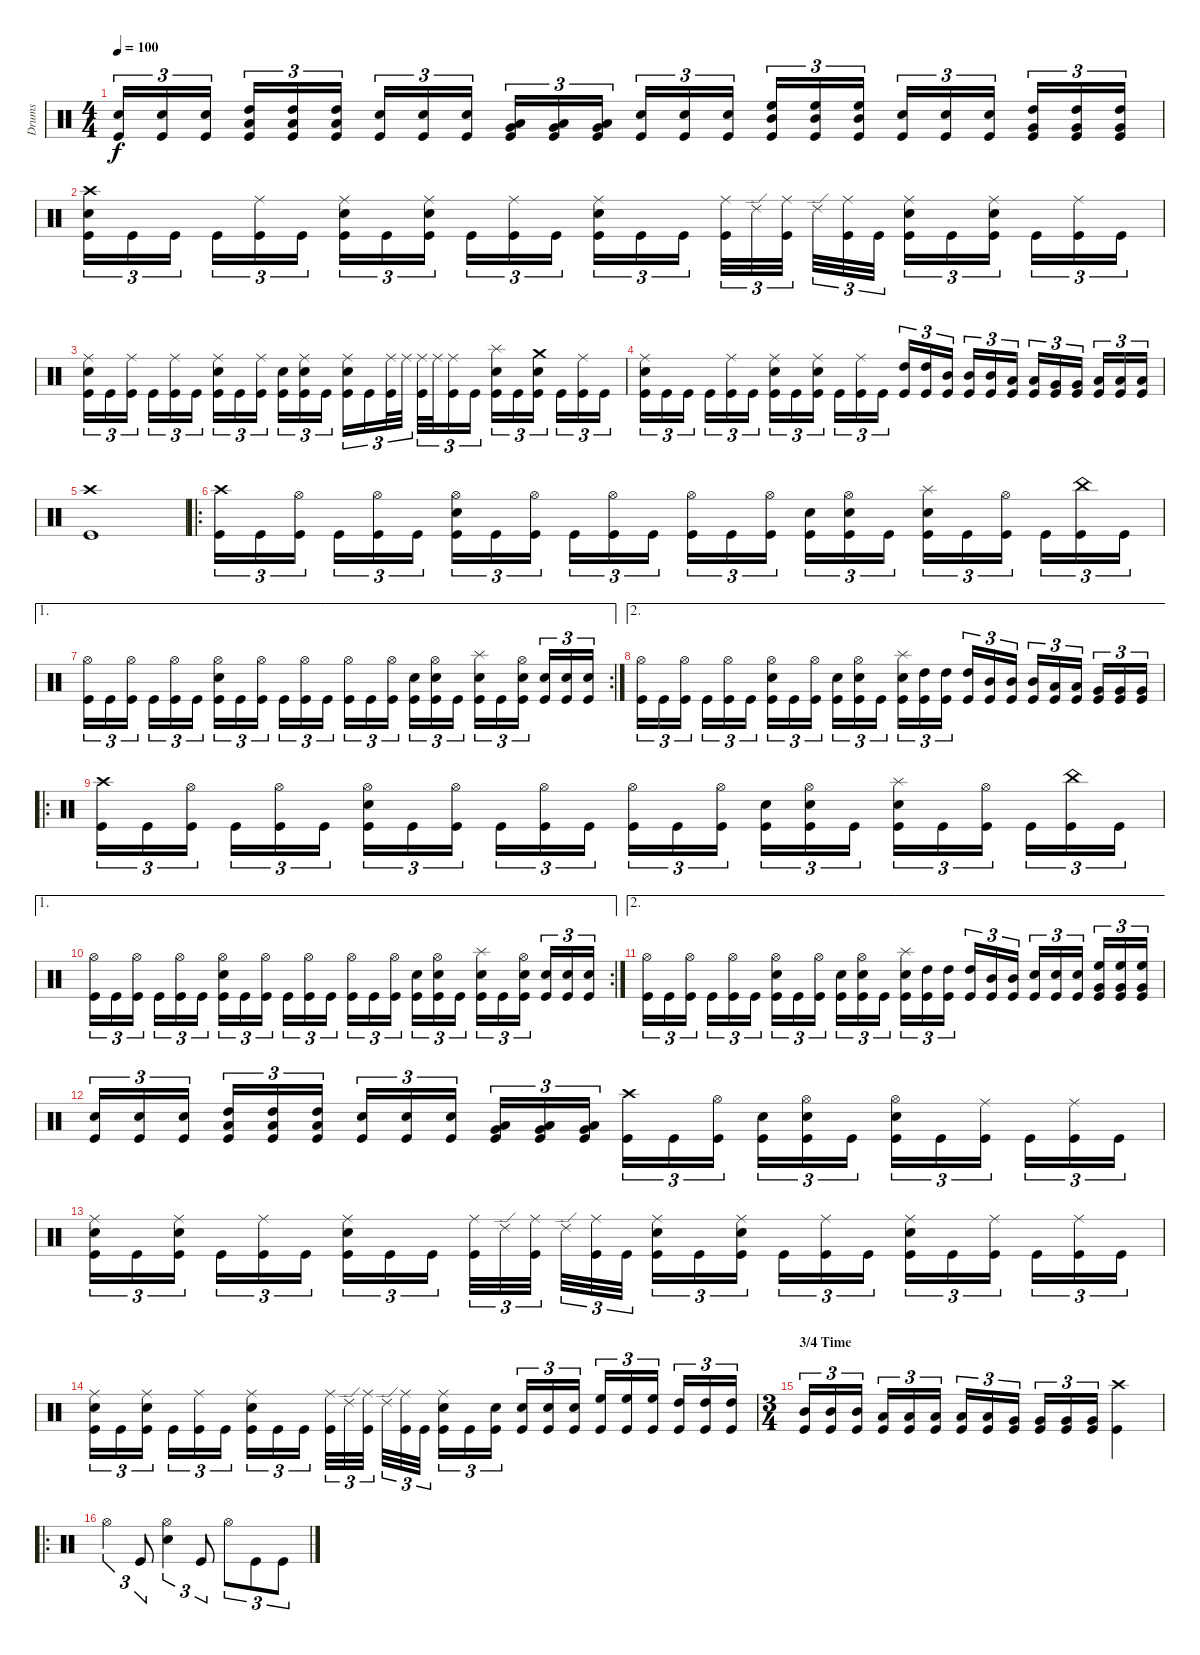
\track ("Drums" "Drums") {instrument percussion}
\staff {score}
\articulation defaults
\ts (4 4)
\tempo 100
\clef neutral
\ks c
("Electric Snare (hit)" "Kick (hit)").16{tu (3 2) dy f} ("Electric Snare (hit)" "Kick (hit)").16{tu (3 2)} ("Electric Snare (hit)" "Kick (hit)").16{tu (3 2)} ("Low Tom (hit)" "High Tom (hit)" "Kick (hit)").16{tu (3 2)} ("Low Tom (hit)" "High Tom (hit)" "Kick (hit)").16{tu (3 2)} ("Low Tom (hit)" "High Tom (hit)" "Kick (hit)").16{tu (3 2)} ("Electric Snare (hit)" "Kick (hit)").16{tu (3 2)} ("Electric Snare (hit)" "Kick (hit)").16{tu (3 2)} ("Electric Snare (hit)" "Kick (hit)").16{tu (3 2)} ("Very Low Tom (hit)" "Low Tom (hit)" "Kick (hit)").16{tu (3 2)} ("Very Low Tom (hit)" "Low Tom (hit)" "Kick (hit)").16{tu (3 2)} ("Very Low Tom (hit)" "Low Tom (hit)" "Kick (hit)").16{tu (3 2)} ("Electric Snare (hit)" "Kick (hit)").16{tu (3 2)} ("Electric Snare (hit)" "Kick (hit)").16{tu (3 2)} ("Electric Snare (hit)" "Kick (hit)").16{tu (3 2)} ("Mid Tom (hit)" "High Floor Tom (hit)" "Kick (hit)").16{tu (3 2)} ("Mid Tom (hit)" "High Floor Tom (hit)" "Kick (hit)").16{tu (3 2)} ("Mid Tom (hit)" "High Floor Tom (hit)" "Kick (hit)").16{tu (3 2)} ("Electric Snare (hit)" "Kick (hit)").16{tu (3 2)} ("Electric Snare (hit)" "Kick (hit)").16{tu (3 2)} ("Electric Snare (hit)" "Kick (hit)").16{tu (3 2)} ("Very Low Tom (hit)" "High Tom (hit)" "Kick (hit)").16{tu (3 2)} ("Very Low Tom (hit)" "High Tom (hit)" "Kick (hit)").16{tu (3 2)} ("Very Low Tom (hit)" "High Tom (hit)" "Kick (hit)").16{tu (3 2)} |
("Crash high (hit)" "Electric Snare (hit)" "Kick (hit)").16{tu (3 2)} "Kick (hit)".16{tu (3 2)} "Kick (hit)".16{tu (3 2)} "Kick (hit)".16{tu (3 2)} ("Ride (middle)" "Kick (hit)").16{tu (3 2)} "Kick (hit)".16{tu (3 2)} ("Ride (middle)" "Electric Snare (hit)" "Kick (hit)").16{tu (3 2)} "Kick (hit)".16{tu (3 2)} ("Ride (middle)" "Electric Snare (hit)" "Kick (hit)").16{tu (3 2)} "Kick (hit)".16{tu (3 2)} ("Ride (middle)" "Kick (hit)").16{tu (3 2)} "Kick (hit)".16{tu (3 2)} ("Ride (middle)" "Electric Snare (hit)" "Kick (hit)").16{tu (3 2)} "Kick (hit)".16{tu (3 2)} "Kick (hit)".16{tu (3 2)} ("Ride (middle)" "Kick (hit)").32{tu (3 2)} "Ride (edge) 2".32{tu (3 2)} ("Ride (middle)" "Kick (hit)").32{tu (3 2)} "Ride (edge) 2".32{tu (3 2)} ("Ride (middle)" "Kick (hit)").32{tu (3 2)} "Kick (hit)".32{tu (3 2)} ("Ride (middle)" "Electric Snare (hit)" "Kick (hit)").16{tu (3 2)} "Kick (hit)".16{tu (3 2)} ("Ride (middle)" "Electric Snare (hit)" "Kick (hit)").16{tu (3 2)} "Kick (hit)".16{tu (3 2)} ("Ride (middle)" "Kick (hit)").16{tu (3 2)} "Kick (hit)".16{tu (3 2)} |
("Ride (middle)" "Electric Snare (hit)" "Kick (hit)").16{tu (3 2)} "Kick (hit)".16{tu (3 2)} ("Ride (middle)" "Kick (hit)").16{tu (3 2)} "Kick (hit)".16{tu (3 2)} ("Ride (middle)" "Kick (hit)").16{tu (3 2)} "Kick (hit)".16{tu (3 2)} ("Ride (middle)" "Electric Snare (hit)" "Kick (hit)").16{tu (3 2)} "Kick (hit)".16{tu (3 2)} ("Ride (middle)" "Kick (hit)").16{tu (3 2)} ("Electric Snare (hit)" "Kick (hit)").16{tu (3 2)} ("Ride (middle)" "Electric Snare (hit)" "Kick (hit)").16{tu (3 2)} "Kick (hit)".16{tu (3 2)} ("Ride (middle)" "Electric Snare (hit)" "Kick (hit)").16{tu (3 2)} "Kick (hit)".16{tu (3 2)} ("Ride (middle)" "Kick (hit)").32{tu (3 2)} "Ride (middle)".32{tu (3 2)} ("Ride (middle)" "Kick (hit)").32{tu (3 2)} "Ride (middle)".32{tu (3 2)} ("Ride (middle)" "Kick (hit)").16{tu (3 2)} "Kick (hit)".16{tu (3 2)} ("Splash (hit)" "Electric Snare (hit)" "Kick (hit)").16{tu (3 2)} "Kick (hit)".16{tu (3 2)} ("Crash medium (hit)" "Electric Snare (hit)" "Kick (hit)").16{tu (3 2)} "Kick (hit)".16{tu (3 2)} ("Ride (middle)" "Kick (hit)").16{tu (3 2)} "Kick (hit)".16{tu (3 2)} |
("Ride (middle)" "Electric Snare (hit)" "Kick (hit)").16{tu (3 2)} "Kick (hit)".16{tu (3 2)} "Kick (hit)".16{tu (3 2)} "Kick (hit)".16{tu (3 2)} ("Ride (middle)" "Kick (hit)").16{tu (3 2)} "Kick (hit)".16{tu (3 2)} ("Ride (middle)" "Electric Snare (hit)" "Kick (hit)").16{tu (3 2)} "Kick (hit)".16{tu (3 2)} ("Ride (middle)" "Electric Snare (hit)" "Kick (hit)").16{tu (3 2)} "Kick (hit)".16{tu (3 2)} ("Ride (middle)" "Kick (hit)").16{tu (3 2)} "Kick (hit)".16{tu (3 2)} ("High Tom (hit)" "Kick (hit)").16{tu (3 2)} ("High Tom (hit)" "Kick (hit)").16{tu (3 2)} ("Mid Tom (hit)" "Kick (hit)").16{tu (3 2)} ("Mid Tom (hit)" "Kick (hit)").16{tu (3 2)} ("Mid Tom (hit)" "Kick (hit)").16{tu (3 2)} ("Low Tom (hit)" "Kick (hit)").16{tu (3 2)} ("Low Tom (hit)" "Kick (hit)").16{tu (3 2)} ("Very Low Tom (hit)" "Kick (hit)").16{tu (3 2)} ("Very Low Tom (hit)" "Kick (hit)").16{tu (3 2)} ("Low Floor Tom (hit)" "Kick (hit)").16{tu (3 2)} ("Low Floor Tom (hit)" "Kick (hit)").16{tu (3 2)} ("Low Floor Tom (hit)" "Kick (hit)").16{tu (3 2)} |
("Crash high (hit)" "Kick (hit)").1 |
\ro
("Crash high (hit)" "Kick (hit)").16{tu (3 2)} "Kick (hit)".16{tu (3 2)} ("Hi-Hat (open)" "Kick (hit)").16{tu (3 2)} "Kick (hit)".16{tu (3 2)} ("Hi-Hat (open)" "Kick (hit)").16{tu (3 2)} "Kick (hit)".16{tu (3 2)} ("Hi-Hat (open)" "Electric Snare (hit)" "Kick (hit)").16{tu (3 2)} "Kick (hit)".16{tu (3 2)} ("Hi-Hat (open)" "Kick (hit)").16{tu (3 2)} "Kick (hit)".16{tu (3 2)} ("Hi-Hat (open)" "Kick (hit)").16{tu (3 2)} "Kick (hit)".16{tu (3 2)} ("Hi-Hat (open)" "Kick (hit)").16{tu (3 2)} "Kick (hit)".16{tu (3 2)} ("Hi-Hat (open)" "Kick (hit)").16{tu (3 2)} ("Electric Snare (hit)" "Kick (hit)").16{tu (3 2)} ("Hi-Hat (open)" "Electric Snare (hit)" "Kick (hit)").16{tu (3 2)} "Kick (hit)".16{tu (3 2)} ("Splash (hit)" "Electric Snare (hit)" "Kick (hit)").16{tu (3 2)} "Kick (hit)".16{tu (3 2)} ("Hi-Hat (open)" "Kick (hit)").16{tu (3 2)} "Kick (hit)".16{tu (3 2)} ("China (hit)" "Kick (hit)").16{tu (3 2)} "Kick (hit)".16{tu (3 2)} |
\ae 1
\rc 2
("Hi-Hat (open)" "Kick (hit)").16{tu (3 2)} "Kick (hit)".16{tu (3 2)} ("Hi-Hat (open)" "Kick (hit)").16{tu (3 2)} "Kick (hit)".16{tu (3 2)} ("Hi-Hat (open)" "Kick (hit)").16{tu (3 2)} "Kick (hit)".16{tu (3 2)} ("Hi-Hat (open)" "Electric Snare (hit)" "Kick (hit)").16{tu (3 2)} "Kick (hit)".16{tu (3 2)} ("Hi-Hat (open)" "Kick (hit)").16{tu (3 2)} "Kick (hit)".16{tu (3 2)} ("Hi-Hat (open)" "Kick (hit)").16{tu (3 2)} "Kick (hit)".16{tu (3 2)} ("Hi-Hat (open)" "Kick (hit)").16{tu (3 2)} "Kick (hit)".16{tu (3 2)} ("Hi-Hat (open)" "Kick (hit)").16{tu (3 2)} ("Electric Snare (hit)" "Kick (hit)").16{tu (3 2)} ("Hi-Hat (open)" "Electric Snare (hit)" "Kick (hit)").16{tu (3 2)} "Kick (hit)".16{tu (3 2)} ("Splash (hit)" "Electric Snare (hit)" "Kick (hit)").16{tu (3 2)} "Kick (hit)".16{tu (3 2)} ("Hi-Hat (open)" "Electric Snare (hit)" "Kick (hit)").16{tu (3 2)} ("Electric Snare (hit)" "Kick (hit)").16{tu (3 2)} ("Electric Snare (hit)" "Kick (hit)").16{tu (3 2)} ("Electric Snare (hit)" "Kick (hit)").16{tu (3 2)} |
\ae 2
("Hi-Hat (open)" "Kick (hit)").16{tu (3 2)} "Kick (hit)".16{tu (3 2)} ("Hi-Hat (open)" "Kick (hit)").16{tu (3 2)} "Kick (hit)".16{tu (3 2)} ("Hi-Hat (open)" "Kick (hit)").16{tu (3 2)} "Kick (hit)".16{tu (3 2)} ("Hi-Hat (open)" "Electric Snare (hit)" "Kick (hit)").16{tu (3 2)} "Kick (hit)".16{tu (3 2)} ("Hi-Hat (open)" "Kick (hit)").16{tu (3 2)} ("Electric Snare (hit)" "Kick (hit)").16{tu (3 2)} ("Hi-Hat (open)" "Electric Snare (hit)" "Kick (hit)").16{tu (3 2)} "Kick (hit)".16{tu (3 2)} ("Splash (hit)" "Electric Snare (hit)" "Kick (hit)").16{tu (3 2)} ("High Tom (hit)" "Kick (hit)").16{tu (3 2)} ("High Tom (hit)" "Kick (hit)").16{tu (3 2)} ("High Tom (hit)" "Kick (hit)").16{tu (3 2)} ("Mid Tom (hit)" "Kick (hit)").16{tu (3 2)} ("Mid Tom (hit)" "Kick (hit)").16{tu (3 2)} ("Mid Tom (hit)" "Kick (hit)").16{tu (3 2)} ("Low Tom (hit)" "Kick (hit)").16{tu (3 2)} ("Low Tom (hit)" "Kick (hit)").16{tu (3 2)} ("Very Low Tom (hit)" "Kick (hit)").16{tu (3 2)} ("Very Low Tom (hit)" "Kick (hit)").16{tu (3 2)} ("Very Low Tom (hit)" "Kick (hit)").16{tu (3 2)} |
\ro
("Crash high (hit)" "Kick (hit)").16{tu (3 2)} "Kick (hit)".16{tu (3 2)} ("Hi-Hat (open)" "Kick (hit)").16{tu (3 2)} "Kick (hit)".16{tu (3 2)} ("Hi-Hat (open)" "Kick (hit)").16{tu (3 2)} "Kick (hit)".16{tu (3 2)} ("Hi-Hat (open)" "Electric Snare (hit)" "Kick (hit)").16{tu (3 2)} "Kick (hit)".16{tu (3 2)} ("Hi-Hat (open)" "Kick (hit)").16{tu (3 2)} "Kick (hit)".16{tu (3 2)} ("Hi-Hat (open)" "Kick (hit)").16{tu (3 2)} "Kick (hit)".16{tu (3 2)} ("Hi-Hat (open)" "Kick (hit)").16{tu (3 2)} "Kick (hit)".16{tu (3 2)} ("Hi-Hat (open)" "Kick (hit)").16{tu (3 2)} ("Electric Snare (hit)" "Kick (hit)").16{tu (3 2)} ("Hi-Hat (open)" "Electric Snare (hit)" "Kick (hit)").16{tu (3 2)} "Kick (hit)".16{tu (3 2)} ("Splash (hit)" "Electric Snare (hit)" "Kick (hit)").16{tu (3 2)} "Kick (hit)".16{tu (3 2)} ("Hi-Hat (open)" "Kick (hit)").16{tu (3 2)} "Kick (hit)".16{tu (3 2)} ("China (hit)" "Kick (hit)").16{tu (3 2)} "Kick (hit)".16{tu (3 2)} |
\ae 1
\rc 2
("Hi-Hat (open)" "Kick (hit)").16{tu (3 2)} "Kick (hit)".16{tu (3 2)} ("Hi-Hat (open)" "Kick (hit)").16{tu (3 2)} "Kick (hit)".16{tu (3 2)} ("Hi-Hat (open)" "Kick (hit)").16{tu (3 2)} "Kick (hit)".16{tu (3 2)} ("Hi-Hat (open)" "Electric Snare (hit)" "Kick (hit)").16{tu (3 2)} "Kick (hit)".16{tu (3 2)} ("Hi-Hat (open)" "Kick (hit)").16{tu (3 2)} "Kick (hit)".16{tu (3 2)} ("Hi-Hat (open)" "Kick (hit)").16{tu (3 2)} "Kick (hit)".16{tu (3 2)} ("Hi-Hat (open)" "Kick (hit)").16{tu (3 2)} "Kick (hit)".16{tu (3 2)} ("Hi-Hat (open)" "Kick (hit)").16{tu (3 2)} ("Electric Snare (hit)" "Kick (hit)").16{tu (3 2)} ("Hi-Hat (open)" "Electric Snare (hit)" "Kick (hit)").16{tu (3 2)} "Kick (hit)".16{tu (3 2)} ("Splash (hit)" "Electric Snare (hit)" "Kick (hit)").16{tu (3 2)} "Kick (hit)".16{tu (3 2)} ("Hi-Hat (open)" "Electric Snare (hit)" "Kick (hit)").16{tu (3 2)} ("Electric Snare (hit)" "Kick (hit)").16{tu (3 2)} ("Electric Snare (hit)" "Kick (hit)").16{tu (3 2)} ("Electric Snare (hit)" "Kick (hit)").16{tu (3 2)} |
\ae 2
("Hi-Hat (open)" "Kick (hit)").16{tu (3 2)} "Kick (hit)".16{tu (3 2)} ("Hi-Hat (open)" "Kick (hit)").16{tu (3 2)} "Kick (hit)".16{tu (3 2)} ("Hi-Hat (open)" "Kick (hit)").16{tu (3 2)} "Kick (hit)".16{tu (3 2)} ("Hi-Hat (open)" "Electric Snare (hit)" "Kick (hit)").16{tu (3 2)} "Kick (hit)".16{tu (3 2)} ("Hi-Hat (open)" "Kick (hit)").16{tu (3 2)} ("Electric Snare (hit)" "Kick (hit)").16{tu (3 2)} ("Hi-Hat (open)" "Electric Snare (hit)" "Kick (hit)").16{tu (3 2)} "Kick (hit)".16{tu (3 2)} ("Splash (hit)" "Electric Snare (hit)" "Kick (hit)").16{tu (3 2)} ("High Tom (hit)" "Kick (hit)").16{tu (3 2)} ("High Tom (hit)" "Kick (hit)").16{tu (3 2)} ("High Tom (hit)" "Kick (hit)").16{tu (3 2)} ("Mid Tom (hit)" "Kick (hit)").16{tu (3 2)} ("Mid Tom (hit)" "Kick (hit)").16{tu (3 2)} ("Electric Snare (hit)" "Kick (hit)").16{tu (3 2)} ("Electric Snare (hit)" "Kick (hit)").16{tu (3 2)} ("Electric Snare (hit)" "Kick (hit)").16{tu (3 2)} ("High Floor Tom (hit)" "Very Low Tom (hit)" "Kick (hit)").16{tu (3 2)} ("High Floor Tom (hit)" "Very Low Tom (hit)" "Kick (hit)").16{tu (3 2)} ("High Floor Tom (hit)" "Very Low Tom (hit)" "Kick (hit)").16{tu (3 2)} |
("Electric Snare (hit)" "Kick (hit)").16{tu (3 2)} ("Electric Snare (hit)" "Kick (hit)").16{tu (3 2)} ("Electric Snare (hit)" "Kick (hit)").16{tu (3 2)} ("Low Tom (hit)" "High Tom (hit)" "Kick (hit)").16{tu (3 2)} ("Low Tom (hit)" "High Tom (hit)" "Kick (hit)").16{tu (3 2)} ("Low Tom (hit)" "High Tom (hit)" "Kick (hit)").16{tu (3 2)} ("Electric Snare (hit)" "Kick (hit)").16{tu (3 2)} ("Electric Snare (hit)" "Kick (hit)").16{tu (3 2)} ("Electric Snare (hit)" "Kick (hit)").16{tu (3 2)} ("Very Low Tom (hit)" "Low Tom (hit)" "Kick (hit)").16{tu (3 2)} ("Very Low Tom (hit)" "Low Tom (hit)" "Kick (hit)").16{tu (3 2)} ("Very Low Tom (hit)" "Low Tom (hit)" "Kick (hit)").16{tu (3 2)} ("Crash high (hit)" "Kick (hit)").16{tu (3 2)} "Kick (hit)".16{tu (3 2)} ("Hi-Hat (open)" "Kick (hit)").16{tu (3 2)} ("Electric Snare (hit)" "Kick (hit)").16{tu (3 2)} ("Hi-Hat (open)" "Electric Snare (hit)" "Kick (hit)").16{tu (3 2)} "Kick (hit)".16{tu (3 2)} ("Hi-Hat (open)" "Electric Snare (hit)" "Kick (hit)").16{tu (3 2)} "Kick (hit)".16{tu (3 2)} ("Ride (middle)" "Kick (hit)").16{tu (3 2)} "Kick (hit)".16{tu (3 2)} ("Ride (middle)" "Kick (hit)").16{tu (3 2)} "Kick (hit)".16{tu (3 2)} |
("Ride (middle)" "Electric Snare (hit)" "Kick (hit)").16{tu (3 2)} "Kick (hit)".16{tu (3 2)} ("Ride (middle)" "Electric Snare (hit)" "Kick (hit)").16{tu (3 2)} "Kick (hit)".16{tu (3 2)} ("Ride (middle)" "Kick (hit)").16{tu (3 2)} "Kick (hit)".16{tu (3 2)} ("Ride (middle)" "Electric Snare (hit)" "Kick (hit)").16{tu (3 2)} "Kick (hit)".16{tu (3 2)} "Kick (hit)".16{tu (3 2)} ("Ride (middle)" "Kick (hit)").32{tu (3 2)} "Ride (edge) 2".32{tu (3 2)} ("Ride (middle)" "Kick (hit)").32{tu (3 2)} "Ride (edge) 2".32{tu (3 2)} ("Ride (middle)" "Kick (hit)").32{tu (3 2)} "Kick (hit)".32{tu (3 2)} ("Ride (middle)" "Electric Snare (hit)" "Kick (hit)").16{tu (3 2)} "Kick (hit)".16{tu (3 2)} ("Ride (middle)" "Electric Snare (hit)" "Kick (hit)").16{tu (3 2)} "Kick (hit)".16{tu (3 2)} ("Ride (middle)" "Kick (hit)").16{tu (3 2)} "Kick (hit)".16{tu (3 2)} ("Ride (middle)" "Electric Snare (hit)" "Kick (hit)").16{tu (3 2)} "Kick (hit)".16{tu (3 2)} ("Ride (middle)" "Kick (hit)").16{tu (3 2)} "Kick (hit)".16{tu (3 2)} ("Ride (middle)" "Kick (hit)").16{tu (3 2)} "Kick (hit)".16{tu (3 2)} |
("Ride (middle)" "Electric Snare (hit)" "Kick (hit)").16{tu (3 2)} "Kick (hit)".16{tu (3 2)} ("Ride (middle)" "Electric Snare (hit)" "Kick (hit)").16{tu (3 2)} "Kick (hit)".16{tu (3 2)} ("Ride (middle)" "Kick (hit)").16{tu (3 2)} "Kick (hit)".16{tu (3 2)} ("Ride (middle)" "Electric Snare (hit)" "Kick (hit)").16{tu (3 2)} "Kick (hit)".16{tu (3 2)} "Kick (hit)".16{tu (3 2)} ("Ride (middle)" "Kick (hit)").32{tu (3 2)} "Ride (edge) 2".32{tu (3 2)} ("Ride (middle)" "Kick (hit)").32{tu (3 2)} "Ride (edge) 2".32{tu (3 2)} ("Ride (middle)" "Kick (hit)").32{tu (3 2)} "Kick (hit)".32{tu (3 2)} ("Ride (middle)" "Electric Snare (hit)" "Kick (hit)").16{tu (3 2)} "Kick (hit)".16{tu (3 2)} ("Electric Snare (hit)" "Kick (hit)").16{tu (3 2)} ("Electric Snare (hit)" "Kick (hit)").16{tu (3 2)} ("Electric Snare (hit)" "Kick (hit)").16{tu (3 2)} ("Electric Snare (hit)" "Kick (hit)").16{tu (3 2)} ("High Floor Tom (hit)" "Kick (hit)").16{tu (3 2)} ("High Floor Tom (hit)" "Kick (hit)").16{tu (3 2)} ("High Floor Tom (hit)" "Kick (hit)").16{tu (3 2)} ("High Tom (hit)" "Kick (hit)").16{tu (3 2)} ("High Tom (hit)" "Kick (hit)").16{tu (3 2)} ("High Tom (hit)" "Kick (hit)").16{tu (3 2)} |
\ts (3 4)
\section ("" "3/4 Time")
("Mid Tom (hit)" "Kick (hit)").16{tu (3 2)} ("Mid Tom (hit)" "Kick (hit)").16{tu (3 2)} ("Mid Tom (hit)" "Kick (hit)").16{tu (3 2)} ("Low Tom (hit)" "Kick (hit)").16{tu (3 2)} ("Low Tom (hit)" "Kick (hit)").16{tu (3 2)} ("Low Tom (hit)" "Kick (hit)").16{tu (3 2)} ("Low Tom (hit)" "Kick (hit)").16{tu (3 2)} ("Low Tom (hit)" "Kick (hit)").16{tu (3 2)} ("Very Low Tom (hit)" "Kick (hit)").16{tu (3 2)} ("Very Low Tom (hit)" "Kick (hit)").16{tu (3 2)} ("Very Low Tom (hit)" "Kick (hit)").16{tu (3 2)} ("Very Low Tom (hit)" "Kick (hit)").16{tu (3 2)} ("Crash high (hit)" "Kick (hit)").4 |
\ro "Hi-Hat (open)".4{tu (3 2)} "Kick (hit)".8{tu (3 2)}
("Hi-Hat (open)" "Electric Snare (hit)").4{tu (3 2)} "Kick (hit)".8{tu (3 2)} "Hi-Hat (open)".8{tu (3 2)} "Kick (hit)".8{tu (3 2)} "Kick (hit)".8{tu (3 2)}
